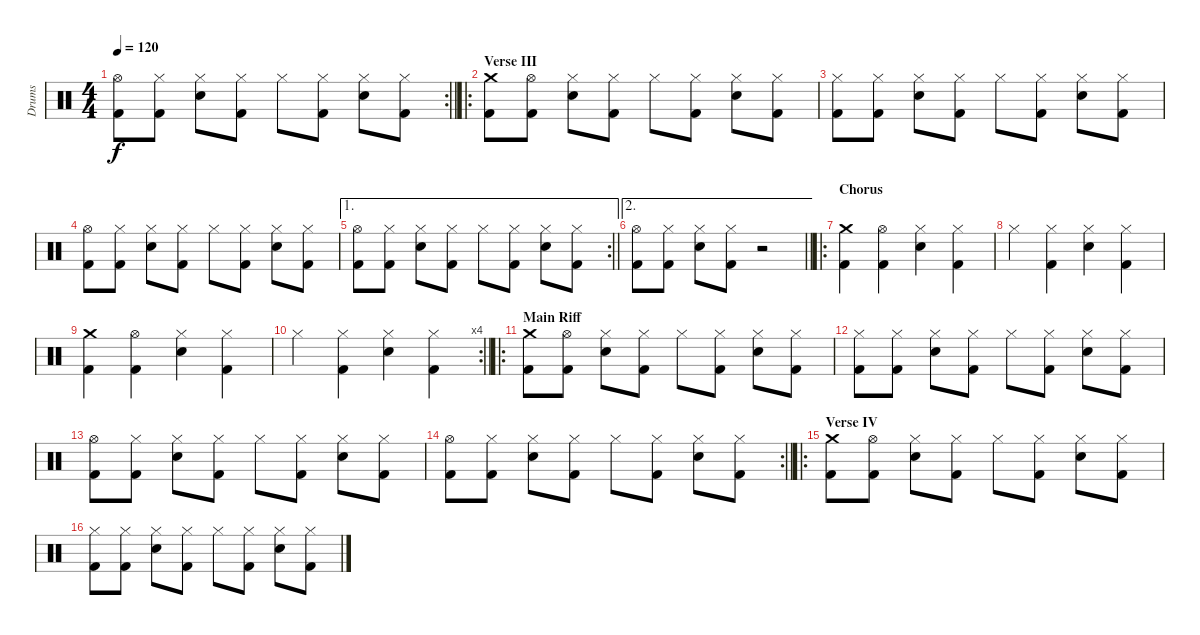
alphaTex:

\track ("Drums" "Drums") {instrument percussion}
\staff {score}
\articulation defaults
\rc 2
\ts (4 4)
\tempo 120
\clef neutral
\barLineRight lightlight
\ks c
("Kick (hit) 2" "Hi-Hat (open)").8{dy f} ("Kick (hit) 2" "Hi-Hat (closed)").8 ("Snare (hit) 2" "Hi-Hat (closed)").8 ("Kick (hit) 2" "Hi-Hat (closed)").8 "Hi-Hat (closed)".8 ("Kick (hit) 2" "Hi-Hat (closed)").8 ("Snare (hit) 2" "Hi-Hat (closed)").8 ("Kick (hit) 2" "Hi-Hat (closed)").8 |
\ro
\section ("" "Verse III")
("Kick (hit) 2" "Crash medium (hit)").8 ("Kick (hit) 2" "Hi-Hat (open)").8 ("Snare (hit) 2" "Hi-Hat (closed)").8 ("Kick (hit) 2" "Hi-Hat (closed)").8 "Hi-Hat (closed)".8 ("Kick (hit) 2" "Hi-Hat (closed)").8 ("Snare (hit) 2" "Hi-Hat (closed)").8 ("Kick (hit) 2" "Hi-Hat (closed)").8 |
("Kick (hit) 2" "Hi-Hat (closed)").8 ("Kick (hit) 2" "Hi-Hat (closed)").8 ("Snare (hit) 2" "Hi-Hat (closed)").8 ("Kick (hit) 2" "Hi-Hat (closed)").8 "Hi-Hat (closed)".8 ("Kick (hit) 2" "Hi-Hat (closed)").8 ("Snare (hit) 2" "Hi-Hat (closed)").8 ("Kick (hit) 2" "Hi-Hat (closed)").8 |
("Kick (hit) 2" "Hi-Hat (open)").8 ("Kick (hit) 2" "Hi-Hat (closed)").8 ("Snare (hit) 2" "Hi-Hat (closed)").8 ("Kick (hit) 2" "Hi-Hat (closed)").8 "Hi-Hat (closed)".8 ("Kick (hit) 2" "Hi-Hat (closed)").8 ("Snare (hit) 2" "Hi-Hat (closed)").8 ("Kick (hit) 2" "Hi-Hat (closed)").8 |
\ae 1
\rc 2
\barLineRight lightlight
("Kick (hit) 2" "Hi-Hat (open)").8 ("Kick (hit) 2" "Hi-Hat (closed)").8 ("Snare (hit) 2" "Hi-Hat (closed)").8 ("Kick (hit) 2" "Hi-Hat (closed)").8 "Hi-Hat (closed)".8 ("Kick (hit) 2" "Hi-Hat (closed)").8 ("Snare (hit) 2" "Hi-Hat (closed)").8 ("Kick (hit) 2" "Hi-Hat (closed)").8 |
\ae 2
\barLineRight lightlight
("Kick (hit) 2" "Hi-Hat (open)").8 ("Kick (hit) 2" "Hi-Hat (closed)").8 ("Snare (hit) 2" "Hi-Hat (closed)").8 ("Kick (hit) 2" "Hi-Hat (closed)").8 r.2 |
\ro
\section ("" "Chorus")
("Kick (hit) 2" "Crash medium (hit)").4 ("Kick (hit) 2" "Hi-Hat (open)").4 ("Snare (hit) 2" "Hi-Hat (closed)").4 ("Kick (hit) 2" "Hi-Hat (closed)").4 |
"Hi-Hat (closed)".4 ("Kick (hit) 2" "Hi-Hat (closed)").4 ("Snare (hit) 2" "Hi-Hat (closed)").4 ("Kick (hit) 2" "Hi-Hat (closed)").4 |
("Kick (hit) 2" "Crash medium (hit)").4 ("Kick (hit) 2" "Hi-Hat (open)").4 ("Snare (hit) 2" "Hi-Hat (closed)").4 ("Kick (hit) 2" "Hi-Hat (closed)").4 |
\rc 4
\barLineRight lightlight "Hi-Hat (closed)".4
("Kick (hit) 2" "Hi-Hat (closed)").4 ("Snare (hit) 2" "Hi-Hat (closed)").4 ("Kick (hit) 2" "Hi-Hat (closed)").4 |
\ro
\section ("" "Main Riff")
("Kick (hit) 2" "Crash medium (hit)").8 ("Kick (hit) 2" "Hi-Hat (open)").8 ("Snare (hit) 2" "Hi-Hat (closed)").8 ("Kick (hit) 2" "Hi-Hat (closed)").8 "Hi-Hat (closed)".8 ("Kick (hit) 2" "Hi-Hat (closed)").8 ("Snare (hit) 2" "Hi-Hat (closed)").8 ("Kick (hit) 2" "Hi-Hat (closed)").8 |
("Kick (hit) 2" "Hi-Hat (closed)").8 ("Kick (hit) 2" "Hi-Hat (closed)").8 ("Snare (hit) 2" "Hi-Hat (closed)").8 ("Kick (hit) 2" "Hi-Hat (closed)").8 "Hi-Hat (closed)".8 ("Kick (hit) 2" "Hi-Hat (closed)").8 ("Snare (hit) 2" "Hi-Hat (closed)").8 ("Kick (hit) 2" "Hi-Hat (closed)").8 |
("Kick (hit) 2" "Hi-Hat (open)").8 ("Kick (hit) 2" "Hi-Hat (closed)").8 ("Snare (hit) 2" "Hi-Hat (closed)").8 ("Kick (hit) 2" "Hi-Hat (closed)").8 "Hi-Hat (closed)".8 ("Kick (hit) 2" "Hi-Hat (closed)").8 ("Snare (hit) 2" "Hi-Hat (closed)").8 ("Kick (hit) 2" "Hi-Hat (closed)").8 |
\rc 2
\barLineRight lightlight
("Kick (hit) 2" "Hi-Hat (open)").8 ("Kick (hit) 2" "Hi-Hat (closed)").8 ("Snare (hit) 2" "Hi-Hat (closed)").8 ("Kick (hit) 2" "Hi-Hat (closed)").8 "Hi-Hat (closed)".8 ("Kick (hit) 2" "Hi-Hat (closed)").8 ("Snare (hit) 2" "Hi-Hat (closed)").8 ("Kick (hit) 2" "Hi-Hat (closed)").8 |
\ro
\section ("" "Verse IV")
("Kick (hit) 2" "Crash medium (hit)").8 ("Kick (hit) 2" "Hi-Hat (open)").8 ("Snare (hit) 2" "Hi-Hat (closed)").8 ("Kick (hit) 2" "Hi-Hat (closed)").8 "Hi-Hat (closed)".8 ("Kick (hit) 2" "Hi-Hat (closed)").8 ("Snare (hit) 2" "Hi-Hat (closed)").8 ("Kick (hit) 2" "Hi-Hat (closed)").8 |
("Kick (hit) 2" "Hi-Hat (closed)").8 ("Kick (hit) 2" "Hi-Hat (closed)").8 ("Snare (hit) 2" "Hi-Hat (closed)").8 ("Kick (hit) 2" "Hi-Hat (closed)").8 "Hi-Hat (closed)".8 ("Kick (hit) 2" "Hi-Hat (closed)").8 ("Snare (hit) 2" "Hi-Hat (closed)").8 ("Kick (hit) 2" "Hi-Hat (closed)").8
